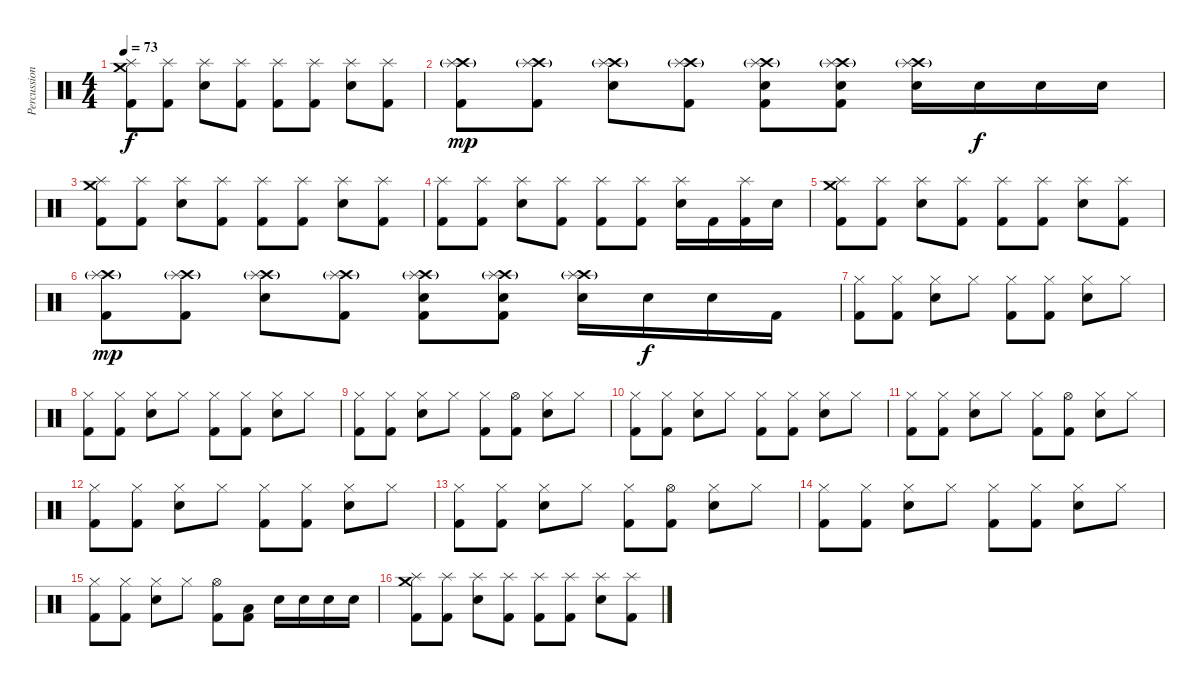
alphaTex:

\track ("Percussions" "Percussion") {instrument percussion}
\staff {score}
\articulation defaults
\ts (4 4)
\tempo 73
\clef neutral
\ks c
("Crash medium (hit)" "Splash (hit)" "Kick (hit) 2").8{dy f} ("Splash (hit)" "Kick (hit) 2").8 ("Splash (hit)" "Snare (hit) 2").8 ("Splash (hit)" "Kick (hit) 2").8 ("Splash (hit)" "Kick (hit) 2").8 ("Splash (hit)" "Kick (hit) 2").8 ("Splash (hit)" "Snare (hit) 2").8 ("Splash (hit)" "Kick (hit) 2").8 |
("Crash high (hit)"{g} "Splash (hit)" "Kick (hit) 2").8{dy mp} ("Crash high (hit)"{g} "Splash (hit)" "Kick (hit) 2").8 ("Crash high (hit)"{g} "Splash (hit)" "Snare (hit) 2").8 ("Crash high (hit)"{g} "Splash (hit)" "Kick (hit) 2").8 ("Crash high (hit)"{g} "Splash (hit)" "Electric Snare (hit)" "Kick (hit) 2").8 ("Crash high (hit)"{g} "Splash (hit)" "Electric Snare (hit)" "Kick (hit) 2").8 ("Crash high (hit)"{g} "Splash (hit)" "Electric Snare (hit)").16 "Electric Snare (hit)".16{dy f} "Electric Snare (hit)".16 "Electric Snare (hit)".16 |
("Crash medium (hit)" "Splash (hit)" "Kick (hit) 2").8 ("Splash (hit)" "Kick (hit) 2").8 ("Splash (hit)" "Snare (hit) 2").8 ("Splash (hit)" "Kick (hit) 2").8 ("Splash (hit)" "Kick (hit) 2").8 ("Splash (hit)" "Kick (hit) 2").8 ("Splash (hit)" "Snare (hit) 2").8 ("Splash (hit)" "Kick (hit) 2").8 |
("Splash (hit)" "Kick (hit) 2").8 ("Splash (hit)" "Kick (hit) 2").8 ("Splash (hit)" "Snare (hit) 2").8 ("Splash (hit)" "Kick (hit) 2").8 ("Splash (hit)" "Kick (hit) 2").8 ("Splash (hit)" "Kick (hit) 2").8 ("Splash (hit)" "Snare (hit) 2").16 "Kick (hit) 2".16 ("Splash (hit)" "Kick (hit) 2").16 "Electric Snare (hit)".16 |
("Crash medium (hit)" "Splash (hit)" "Kick (hit) 2").8 ("Splash (hit)" "Kick (hit) 2").8 ("Splash (hit)" "Snare (hit) 2").8 ("Splash (hit)" "Kick (hit) 2").8 ("Splash (hit)" "Kick (hit) 2").8 ("Splash (hit)" "Kick (hit) 2").8 ("Splash (hit)" "Snare (hit) 2").8 ("Splash (hit)" "Kick (hit) 2").8 |
("Crash high (hit)"{g} "Splash (hit)" "Kick (hit) 2").8{dy mp} ("Crash high (hit)"{g} "Splash (hit)" "Kick (hit) 2").8 ("Crash high (hit)"{g} "Splash (hit)" "Snare (hit) 2").8 ("Crash high (hit)"{g} "Splash (hit)" "Kick (hit) 2").8 ("Crash high (hit)"{g} "Splash (hit)" "Electric Snare (hit)" "Kick (hit) 2").8 ("Crash high (hit)"{g} "Splash (hit)" "Electric Snare (hit)" "Kick (hit) 2").8 ("Crash high (hit)"{g} "Splash (hit)" "Electric Snare (hit)").16 "Electric Snare (hit)".16{dy f} "Electric Snare (hit)".16 "Kick (hit) 2".16 |
("Hi-Hat (closed)" "Kick (hit) 2").8 ("Hi-Hat (closed)" "Kick (hit) 2").8 ("Hi-Hat (closed)" "Snare (hit) 2").8 "Hi-Hat (closed)".8 ("Hi-Hat (closed)" "Kick (hit) 2").8 ("Hi-Hat (closed)" "Kick (hit) 2").8 ("Hi-Hat (closed)" "Snare (hit) 2").8 "Hi-Hat (closed)".8 |
("Hi-Hat (closed)" "Kick (hit) 2").8 ("Hi-Hat (closed)" "Kick (hit) 2").8 ("Hi-Hat (closed)" "Snare (hit) 2").8 "Hi-Hat (closed)".8 ("Hi-Hat (closed)" "Kick (hit) 2").8 ("Hi-Hat (closed)" "Kick (hit) 2").8 ("Hi-Hat (closed)" "Snare (hit) 2").8 "Hi-Hat (closed)".8 |
("Hi-Hat (closed)" "Kick (hit) 2").8 ("Hi-Hat (closed)" "Kick (hit) 2").8 ("Hi-Hat (closed)" "Snare (hit) 2").8 "Hi-Hat (closed)".8 ("Hi-Hat (closed)" "Kick (hit) 2").8 ("Hi-Hat (open)" "Kick (hit) 2").8 ("Hi-Hat (closed)" "Snare (hit) 2").8 "Hi-Hat (closed)".8 |
("Hi-Hat (closed)" "Kick (hit) 2").8 ("Hi-Hat (closed)" "Kick (hit) 2").8 ("Hi-Hat (closed)" "Snare (hit) 2").8 "Hi-Hat (closed)".8 ("Hi-Hat (closed)" "Kick (hit) 2").8 ("Hi-Hat (closed)" "Kick (hit) 2").8 ("Hi-Hat (closed)" "Snare (hit) 2").8 "Hi-Hat (closed)".8 |
("Hi-Hat (closed)" "Kick (hit) 2").8 ("Hi-Hat (closed)" "Kick (hit) 2").8 ("Hi-Hat (closed)" "Snare (hit) 2").8 "Hi-Hat (closed)".8 ("Hi-Hat (closed)" "Kick (hit) 2").8 ("Hi-Hat (open)" "Kick (hit) 2").8 ("Hi-Hat (closed)" "Snare (hit) 2").8 "Hi-Hat (closed)".8 |
("Hi-Hat (closed)" "Kick (hit) 2").8 ("Hi-Hat (closed)" "Kick (hit) 2").8 ("Hi-Hat (closed)" "Snare (hit) 2").8 "Hi-Hat (closed)".8 ("Hi-Hat (closed)" "Kick (hit) 2").8 ("Hi-Hat (closed)" "Kick (hit) 2").8 ("Hi-Hat (closed)" "Snare (hit) 2").8 "Hi-Hat (closed)".8 |
("Hi-Hat (closed)" "Kick (hit) 2").8 ("Hi-Hat (closed)" "Kick (hit) 2").8 ("Hi-Hat (closed)" "Snare (hit) 2").8 "Hi-Hat (closed)".8 ("Hi-Hat (closed)" "Kick (hit) 2").8 ("Hi-Hat (open)" "Kick (hit) 2").8 ("Hi-Hat (closed)" "Snare (hit) 2").8 "Hi-Hat (closed)".8 |
("Hi-Hat (closed)" "Kick (hit) 2").8 ("Hi-Hat (closed)" "Kick (hit) 2").8 ("Hi-Hat (closed)" "Snare (hit) 2").8 "Hi-Hat (closed)".8 ("Hi-Hat (closed)" "Kick (hit) 2").8 ("Hi-Hat (closed)" "Kick (hit) 2").8 ("Hi-Hat (closed)" "Snare (hit) 2").8 "Hi-Hat (closed)".8 |
("Hi-Hat (closed)" "Kick (hit) 2").8 ("Hi-Hat (closed)" "Kick (hit) 2").8 ("Hi-Hat (closed)" "Snare (hit) 2").8 "Hi-Hat (closed)".8 ("Hi-Hat (open)" "Kick (hit) 2").8 ("Low Floor Tom (hit)" "Kick (hit) 2").8 "Electric Snare (hit)".16 "Electric Snare (hit)".16 "Electric Snare (hit)".16 "Electric Snare (hit)".16 |
("Crash medium (hit)" "Splash (hit)" "Kick (hit) 2").8 ("Splash (hit)" "Kick (hit) 2").8 ("Splash (hit)" "Snare (hit) 2").8 ("Splash (hit)" "Kick (hit) 2").8 ("Splash (hit)" "Kick (hit) 2").8 ("Splash (hit)" "Kick (hit) 2").8 ("Splash (hit)" "Snare (hit) 2").8 ("Splash (hit)" "Kick (hit) 2").8
